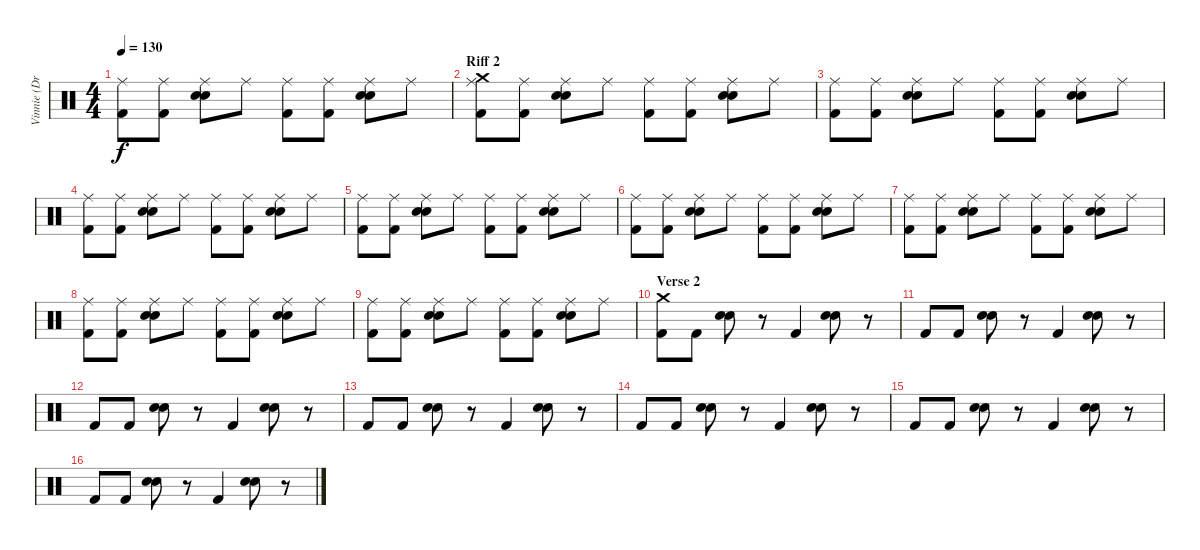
\track ("Vinnie (Drums)" "Vinnie (Dr") {instrument percussion}
\staff {score}
\articulation defaults
\ts (4 4)
\tempo 130
\clef neutral
\ks c
("Kick (hit) 2" "Ride (middle)").8{dy f} ("Kick (hit) 2" "Ride (middle)").8 ("Snare (hit) 2" "Electric Snare (hit)" "Ride (middle)").8 "Ride (middle)".8 ("Kick (hit) 2" "Ride (middle)").8 ("Kick (hit) 2" "Ride (middle)").8 ("Snare (hit) 2" "Electric Snare (hit)" "Ride (middle)").8 "Ride (middle)".8 |
\section ("" "Riff 2")
("Kick (hit) 2" "Ride (middle)" "Crash medium (hit)").8 ("Kick (hit) 2" "Ride (middle)").8 ("Snare (hit) 2" "Electric Snare (hit)" "Ride (middle)").8 "Ride (middle)".8 ("Kick (hit) 2" "Ride (middle)").8 ("Kick (hit) 2" "Ride (middle)").8 ("Snare (hit) 2" "Electric Snare (hit)" "Ride (middle)").8 "Ride (middle)".8 |
("Kick (hit) 2" "Ride (middle)").8 ("Kick (hit) 2" "Ride (middle)").8 ("Snare (hit) 2" "Electric Snare (hit)" "Ride (middle)").8 "Ride (middle)".8 ("Kick (hit) 2" "Ride (middle)").8 ("Kick (hit) 2" "Ride (middle)").8 ("Snare (hit) 2" "Electric Snare (hit)" "Ride (middle)").8 "Ride (middle)".8 |
("Kick (hit) 2" "Ride (middle)").8 ("Kick (hit) 2" "Ride (middle)").8 ("Snare (hit) 2" "Electric Snare (hit)" "Ride (middle)").8 "Ride (middle)".8 ("Kick (hit) 2" "Ride (middle)").8 ("Kick (hit) 2" "Ride (middle)").8 ("Snare (hit) 2" "Electric Snare (hit)" "Ride (middle)").8 "Ride (middle)".8 |
("Kick (hit) 2" "Ride (middle)").8 ("Kick (hit) 2" "Ride (middle)").8 ("Snare (hit) 2" "Electric Snare (hit)" "Ride (middle)").8 "Ride (middle)".8 ("Kick (hit) 2" "Ride (middle)").8 ("Kick (hit) 2" "Ride (middle)").8 ("Snare (hit) 2" "Electric Snare (hit)" "Ride (middle)").8 "Ride (middle)".8 |
("Kick (hit) 2" "Ride (middle)").8 ("Kick (hit) 2" "Ride (middle)").8 ("Snare (hit) 2" "Electric Snare (hit)" "Ride (middle)").8 "Ride (middle)".8 ("Kick (hit) 2" "Ride (middle)").8 ("Kick (hit) 2" "Ride (middle)").8 ("Snare (hit) 2" "Electric Snare (hit)" "Ride (middle)").8 "Ride (middle)".8 |
("Kick (hit) 2" "Ride (middle)").8 ("Kick (hit) 2" "Ride (middle)").8 ("Snare (hit) 2" "Electric Snare (hit)" "Ride (middle)").8 "Ride (middle)".8 ("Kick (hit) 2" "Ride (middle)").8 ("Kick (hit) 2" "Ride (middle)").8 ("Snare (hit) 2" "Electric Snare (hit)" "Ride (middle)").8 "Ride (middle)".8 |
("Kick (hit) 2" "Ride (middle)").8 ("Kick (hit) 2" "Ride (middle)").8 ("Snare (hit) 2" "Electric Snare (hit)" "Ride (middle)").8 "Ride (middle)".8 ("Kick (hit) 2" "Ride (middle)").8 ("Kick (hit) 2" "Ride (middle)").8 ("Snare (hit) 2" "Electric Snare (hit)" "Ride (middle)").8 "Ride (middle)".8 |
("Kick (hit) 2" "Ride (middle)").8 ("Kick (hit) 2" "Ride (middle)").8 ("Snare (hit) 2" "Electric Snare (hit)" "Ride (middle)").8 "Ride (middle)".8 ("Kick (hit) 2" "Ride (middle)").8 ("Kick (hit) 2" "Ride (middle)").8 ("Snare (hit) 2" "Electric Snare (hit)" "Ride (middle)").8 "Ride (middle)".8 |
\section ("" "Verse 2")
("Kick (hit) 2" "Crash medium (hit)").8 "Kick (hit) 2".8 ("Snare (hit) 2" "Electric Snare (hit)").8 r.8 "Kick (hit) 2".4 ("Snare (hit) 2" "Electric Snare (hit)").8 r.8 |
"Kick (hit) 2".8 "Kick (hit) 2".8 ("Snare (hit) 2" "Electric Snare (hit)").8 r.8 "Kick (hit) 2".4 ("Snare (hit) 2" "Electric Snare (hit)").8 r.8 |
"Kick (hit) 2".8 "Kick (hit) 2".8 ("Snare (hit) 2" "Electric Snare (hit)").8 r.8 "Kick (hit) 2".4 ("Snare (hit) 2" "Electric Snare (hit)").8 r.8 |
"Kick (hit) 2".8 "Kick (hit) 2".8 ("Snare (hit) 2" "Electric Snare (hit)").8 r.8 "Kick (hit) 2".4 ("Snare (hit) 2" "Electric Snare (hit)").8 r.8 |
"Kick (hit) 2".8 "Kick (hit) 2".8 ("Snare (hit) 2" "Electric Snare (hit)").8 r.8 "Kick (hit) 2".4 ("Snare (hit) 2" "Electric Snare (hit)").8 r.8 |
"Kick (hit) 2".8 "Kick (hit) 2".8 ("Snare (hit) 2" "Electric Snare (hit)").8 r.8 "Kick (hit) 2".4 ("Snare (hit) 2" "Electric Snare (hit)").8 r.8 |
"Kick (hit) 2".8 "Kick (hit) 2".8 ("Snare (hit) 2" "Electric Snare (hit)").8 r.8 "Kick (hit) 2".4 ("Snare (hit) 2" "Electric Snare (hit)").8 r.8
